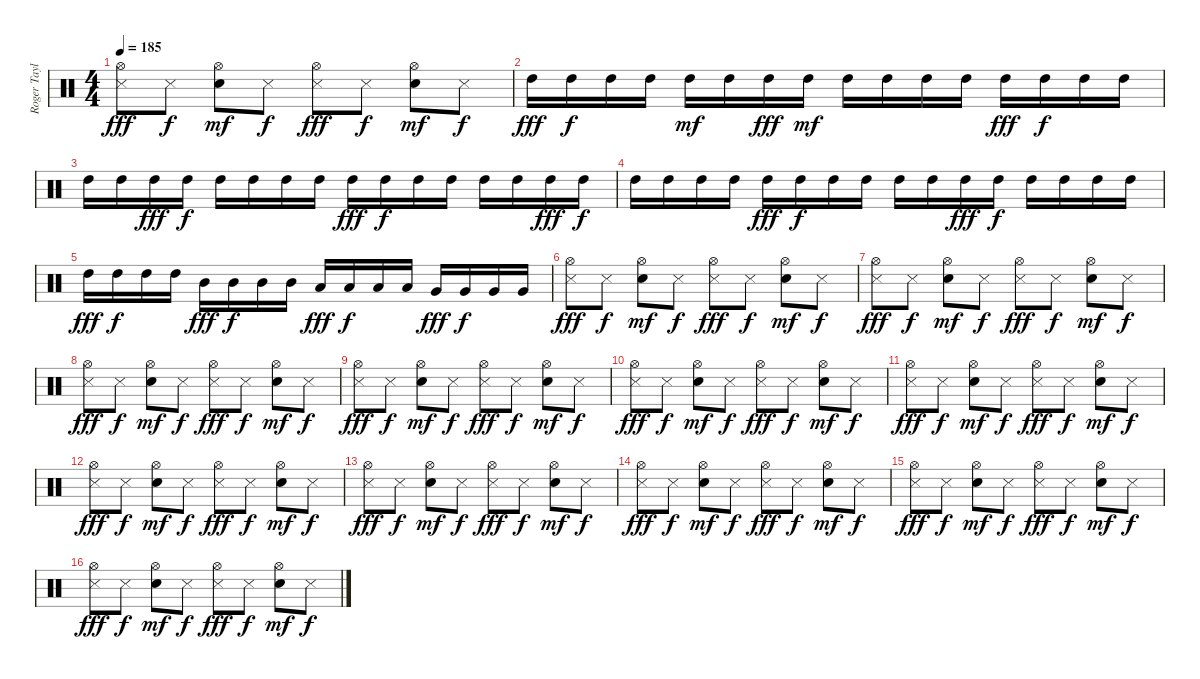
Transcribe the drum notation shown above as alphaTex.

\track ("Roger Taylor" "Roger Tayl") {instrument percussion}
\staff {score}
\articulation defaults
\ts (4 4)
\tempo 185
\clef neutral
\ks c
("Metronome (hit)" "Hi-Hat (open)").8{dy fff} "Metronome (hit)".8{dy f} ("Snare (hit) 2" "Hi-Hat (open)").8{dy mf} "Metronome (hit)".8{dy f} ("Metronome (hit)" "Hi-Hat (open)").8{dy fff} "Metronome (hit)".8{dy f} ("Snare (hit) 2" "Hi-Hat (open)").8{dy mf} "Metronome (hit)".8{dy f} |
"High Tom (hit)".16{dy fff} "High Tom (hit)".16{dy f} "High Tom (hit)".16 "High Tom (hit)".16 "High Tom (hit)".16{dy mf} "High Tom (hit)".16 "High Tom (hit)".16{dy fff} "High Tom (hit)".16{dy mf} "High Tom (hit)".16 "High Tom (hit)".16 "High Tom (hit)".16 "High Tom (hit)".16 "High Tom (hit)".16{dy fff} "High Tom (hit)".16{dy f} "High Tom (hit)".16 "High Tom (hit)".16 |
"High Tom (hit)".16 "High Tom (hit)".16 "High Tom (hit)".16{dy fff} "High Tom (hit)".16{dy f} "High Tom (hit)".16 "High Tom (hit)".16 "High Tom (hit)".16 "High Tom (hit)".16 "High Tom (hit)".16{dy fff} "High Tom (hit)".16{dy f} "High Tom (hit)".16 "High Tom (hit)".16 "High Tom (hit)".16 "High Tom (hit)".16 "High Tom (hit)".16{dy fff} "High Tom (hit)".16{dy f} |
"High Tom (hit)".16 "High Tom (hit)".16 "High Tom (hit)".16 "High Tom (hit)".16 "High Tom (hit)".16{dy fff} "High Tom (hit)".16{dy f} "High Tom (hit)".16 "High Tom (hit)".16 "High Tom (hit)".16 "High Tom (hit)".16 "High Tom (hit)".16{dy fff} "High Tom (hit)".16{dy f} "High Tom (hit)".16 "High Tom (hit)".16 "High Tom (hit)".16 "High Tom (hit)".16 |
"High Tom (hit)".16{dy fff} "High Tom (hit)".16{dy f} "High Tom (hit)".16 "High Tom (hit)".16 "Mid Tom (hit)".16{dy fff} "Mid Tom (hit)".16{dy f} "Mid Tom (hit)".16 "Mid Tom (hit)".16 "Low Tom (hit)".16{dy fff} "Low Tom (hit)".16{dy f} "Low Tom (hit)".16 "Low Tom (hit)".16 "Very Low Tom (hit)".16{dy fff} "Very Low Tom (hit)".16{dy f} "Very Low Tom (hit)".16 "Very Low Tom (hit)".16 |
("Metronome (hit)" "Hi-Hat (open)").8{dy fff} "Metronome (hit)".8{dy f} ("Snare (hit) 2" "Hi-Hat (open)").8{dy mf} "Metronome (hit)".8{dy f} ("Metronome (hit)" "Hi-Hat (open)").8{dy fff} "Metronome (hit)".8{dy f} ("Snare (hit) 2" "Hi-Hat (open)").8{dy mf} "Metronome (hit)".8{dy f} |
("Metronome (hit)" "Hi-Hat (open)").8{dy fff} "Metronome (hit)".8{dy f} ("Snare (hit) 2" "Hi-Hat (open)").8{dy mf} "Metronome (hit)".8{dy f} ("Metronome (hit)" "Hi-Hat (open)").8{dy fff} "Metronome (hit)".8{dy f} ("Snare (hit) 2" "Hi-Hat (open)").8{dy mf} "Metronome (hit)".8{dy f} |
("Metronome (hit)" "Hi-Hat (open)").8{dy fff} "Metronome (hit)".8{dy f} ("Snare (hit) 2" "Hi-Hat (open)").8{dy mf} "Metronome (hit)".8{dy f} ("Metronome (hit)" "Hi-Hat (open)").8{dy fff} "Metronome (hit)".8{dy f} ("Snare (hit) 2" "Hi-Hat (open)").8{dy mf} "Metronome (hit)".8{dy f} |
("Metronome (hit)" "Hi-Hat (open)").8{dy fff} "Metronome (hit)".8{dy f} ("Snare (hit) 2" "Hi-Hat (open)").8{dy mf} "Metronome (hit)".8{dy f} ("Metronome (hit)" "Hi-Hat (open)").8{dy fff} "Metronome (hit)".8{dy f} ("Snare (hit) 2" "Hi-Hat (open)").8{dy mf} "Metronome (hit)".8{dy f} |
("Metronome (hit)" "Hi-Hat (open)").8{dy fff} "Metronome (hit)".8{dy f} ("Snare (hit) 2" "Hi-Hat (open)").8{dy mf} "Metronome (hit)".8{dy f} ("Metronome (hit)" "Hi-Hat (open)").8{dy fff} "Metronome (hit)".8{dy f} ("Snare (hit) 2" "Hi-Hat (open)").8{dy mf} "Metronome (hit)".8{dy f} |
("Metronome (hit)" "Hi-Hat (open)").8{dy fff} "Metronome (hit)".8{dy f} ("Snare (hit) 2" "Hi-Hat (open)").8{dy mf} "Metronome (hit)".8{dy f} ("Metronome (hit)" "Hi-Hat (open)").8{dy fff} "Metronome (hit)".8{dy f} ("Snare (hit) 2" "Hi-Hat (open)").8{dy mf} "Metronome (hit)".8{dy f} |
("Metronome (hit)" "Hi-Hat (open)").8{dy fff} "Metronome (hit)".8{dy f} ("Snare (hit) 2" "Hi-Hat (open)").8{dy mf} "Metronome (hit)".8{dy f} ("Metronome (hit)" "Hi-Hat (open)").8{dy fff} "Metronome (hit)".8{dy f} ("Snare (hit) 2" "Hi-Hat (open)").8{dy mf} "Metronome (hit)".8{dy f} |
("Metronome (hit)" "Hi-Hat (open)").8{dy fff} "Metronome (hit)".8{dy f} ("Snare (hit) 2" "Hi-Hat (open)").8{dy mf} "Metronome (hit)".8{dy f} ("Metronome (hit)" "Hi-Hat (open)").8{dy fff} "Metronome (hit)".8{dy f} ("Snare (hit) 2" "Hi-Hat (open)").8{dy mf} "Metronome (hit)".8{dy f} |
("Metronome (hit)" "Hi-Hat (open)").8{dy fff} "Metronome (hit)".8{dy f} ("Snare (hit) 2" "Hi-Hat (open)").8{dy mf} "Metronome (hit)".8{dy f} ("Metronome (hit)" "Hi-Hat (open)").8{dy fff} "Metronome (hit)".8{dy f} ("Snare (hit) 2" "Hi-Hat (open)").8{dy mf} "Metronome (hit)".8{dy f} |
("Metronome (hit)" "Hi-Hat (open)").8{dy fff} "Metronome (hit)".8{dy f} ("Snare (hit) 2" "Hi-Hat (open)").8{dy mf} "Metronome (hit)".8{dy f} ("Metronome (hit)" "Hi-Hat (open)").8{dy fff} "Metronome (hit)".8{dy f} ("Snare (hit) 2" "Hi-Hat (open)").8{dy mf} "Metronome (hit)".8{dy f} |
("Metronome (hit)" "Hi-Hat (open)").8{dy fff} "Metronome (hit)".8{dy f} ("Snare (hit) 2" "Hi-Hat (open)").8{dy mf} "Metronome (hit)".8{dy f} ("Metronome (hit)" "Hi-Hat (open)").8{dy fff} "Metronome (hit)".8{dy f} ("Snare (hit) 2" "Hi-Hat (open)").8{dy mf} "Metronome (hit)".8{dy f}
